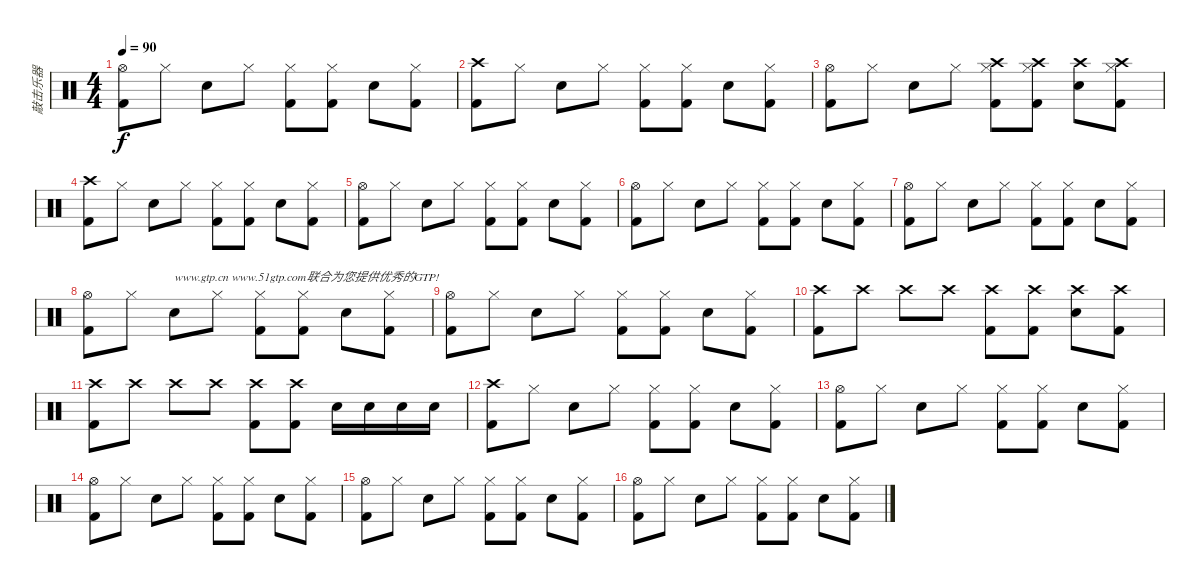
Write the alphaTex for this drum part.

\track ("敲击乐器" "敲击乐器") {instrument percussion bank 8}
\staff {score}
\articulation defaults
\ts (4 4)
\tempo 90
\clef neutral
\ks c
("Hi-Hat (open)" "Kick (hit) 2").8{dy f} "Hi-Hat (closed)".8 "Electric Snare (hit)".8 "Hi-Hat (closed)".8 ("Hi-Hat (closed)" "Kick (hit) 2").8 ("Hi-Hat (closed)" "Kick (hit) 2").8 "Electric Snare (hit)".8 ("Hi-Hat (closed)" "Kick (hit) 2").8 |
("Crash high (hit)" "Kick (hit) 2").8 "Hi-Hat (closed)".8 "Electric Snare (hit)".8 "Hi-Hat (closed)".8 ("Hi-Hat (closed)" "Kick (hit) 2").8 ("Hi-Hat (closed)" "Kick (hit) 2").8 "Electric Snare (hit)".8 ("Hi-Hat (closed)" "Kick (hit) 2").8 |
("Hi-Hat (open)" "Kick (hit) 2").8 "Hi-Hat (closed)".8 "Electric Snare (hit)".8 "Hi-Hat (closed)".8 ("Crash high (hit)" "Hi-Hat (closed)" "Kick (hit) 2").8 ("Crash high (hit)" "Hi-Hat (closed)" "Kick (hit) 2").8 ("Crash high (hit)" "Electric Snare (hit)").8 ("Crash high (hit)" "Hi-Hat (closed)" "Kick (hit) 2").8 |
("Crash high (hit)" "Kick (hit) 2").8 "Hi-Hat (closed)".8 "Electric Snare (hit)".8 "Hi-Hat (closed)".8 ("Hi-Hat (closed)" "Kick (hit) 2").8 ("Hi-Hat (closed)" "Kick (hit) 2").8 "Electric Snare (hit)".8 ("Hi-Hat (closed)" "Kick (hit) 2").8 |
("Hi-Hat (open)" "Kick (hit) 2").8 "Hi-Hat (closed)".8 "Electric Snare (hit)".8 "Hi-Hat (closed)".8 ("Hi-Hat (closed)" "Kick (hit) 2").8 ("Hi-Hat (closed)" "Kick (hit) 2").8 "Electric Snare (hit)".8 ("Hi-Hat (closed)" "Kick (hit) 2").8 |
("Hi-Hat (open)" "Kick (hit) 2").8 "Hi-Hat (closed)".8 "Electric Snare (hit)".8 "Hi-Hat (closed)".8 ("Hi-Hat (closed)" "Kick (hit) 2").8 ("Hi-Hat (closed)" "Kick (hit) 2").8 "Electric Snare (hit)".8 ("Hi-Hat (closed)" "Kick (hit) 2").8 |
("Hi-Hat (open)" "Kick (hit) 2").8 "Hi-Hat (closed)".8 "Electric Snare (hit)".8 "Hi-Hat (closed)".8 ("Hi-Hat (closed)" "Kick (hit) 2").8 ("Hi-Hat (closed)" "Kick (hit) 2").8 "Electric Snare (hit)".8 ("Hi-Hat (closed)" "Kick (hit) 2").8 |
("Hi-Hat (open)" "Kick (hit) 2").8 "Hi-Hat (closed)".8 "Electric Snare (hit)".8{txt "www.gtp.cn www.51gtp.com联合为您提供优秀的GTP!"} "Hi-Hat (closed)".8 ("Hi-Hat (closed)" "Kick (hit) 2").8 ("Hi-Hat (closed)" "Kick (hit) 2").8 "Electric Snare (hit)".8 ("Hi-Hat (closed)" "Kick (hit) 2").8 |
("Hi-Hat (open)" "Kick (hit) 2").8 "Hi-Hat (closed)".8 "Electric Snare (hit)".8 "Hi-Hat (closed)".8 ("Hi-Hat (closed)" "Kick (hit) 2").8 ("Hi-Hat (closed)" "Kick (hit) 2").8 "Electric Snare (hit)".8 ("Hi-Hat (closed)" "Kick (hit) 2").8 |
("Crash high (hit)" "Kick (hit) 2").8 "Crash high (hit)".8 "Crash high (hit)".8 "Crash high (hit)".8 ("Crash high (hit)" "Kick (hit) 2").8 ("Crash high (hit)" "Kick (hit) 2").8 ("Crash high (hit)" "Electric Snare (hit)").8 ("Crash high (hit)" "Kick (hit) 2").8 |
("Crash high (hit)" "Kick (hit) 2").8 "Crash high (hit)".8 "Crash high (hit)".8 "Crash high (hit)".8 ("Crash high (hit)" "Kick (hit) 2").8 ("Crash high (hit)" "Kick (hit) 2").8 "Electric Snare (hit)".16 "Electric Snare (hit)".16 "Electric Snare (hit)".16 "Electric Snare (hit)".16 |
("Crash high (hit)" "Kick (hit) 2").8 "Hi-Hat (closed)".8 "Electric Snare (hit)".8 "Hi-Hat (closed)".8 ("Hi-Hat (closed)" "Kick (hit) 2").8 ("Hi-Hat (closed)" "Kick (hit) 2").8 "Electric Snare (hit)".8 ("Hi-Hat (closed)" "Kick (hit) 2").8 |
("Hi-Hat (open)" "Kick (hit) 2").8 "Hi-Hat (closed)".8 "Electric Snare (hit)".8 "Hi-Hat (closed)".8 ("Hi-Hat (closed)" "Kick (hit) 2").8 ("Hi-Hat (closed)" "Kick (hit) 2").8 "Electric Snare (hit)".8 ("Hi-Hat (closed)" "Kick (hit) 2").8 |
("Hi-Hat (open)" "Kick (hit) 2").8 "Hi-Hat (closed)".8 "Electric Snare (hit)".8 "Hi-Hat (closed)".8 ("Hi-Hat (closed)" "Kick (hit) 2").8 ("Hi-Hat (closed)" "Kick (hit) 2").8 "Electric Snare (hit)".8 ("Hi-Hat (closed)" "Kick (hit) 2").8 |
("Hi-Hat (open)" "Kick (hit) 2").8 "Hi-Hat (closed)".8 "Electric Snare (hit)".8 "Hi-Hat (closed)".8 ("Hi-Hat (closed)" "Kick (hit) 2").8 ("Hi-Hat (closed)" "Kick (hit) 2").8 "Electric Snare (hit)".8 ("Hi-Hat (closed)" "Kick (hit) 2").8 |
("Hi-Hat (open)" "Kick (hit) 2").8 "Hi-Hat (closed)".8 "Electric Snare (hit)".8 "Hi-Hat (closed)".8 ("Hi-Hat (closed)" "Kick (hit) 2").8 ("Hi-Hat (closed)" "Kick (hit) 2").8 "Electric Snare (hit)".8 ("Hi-Hat (closed)" "Kick (hit) 2").8
